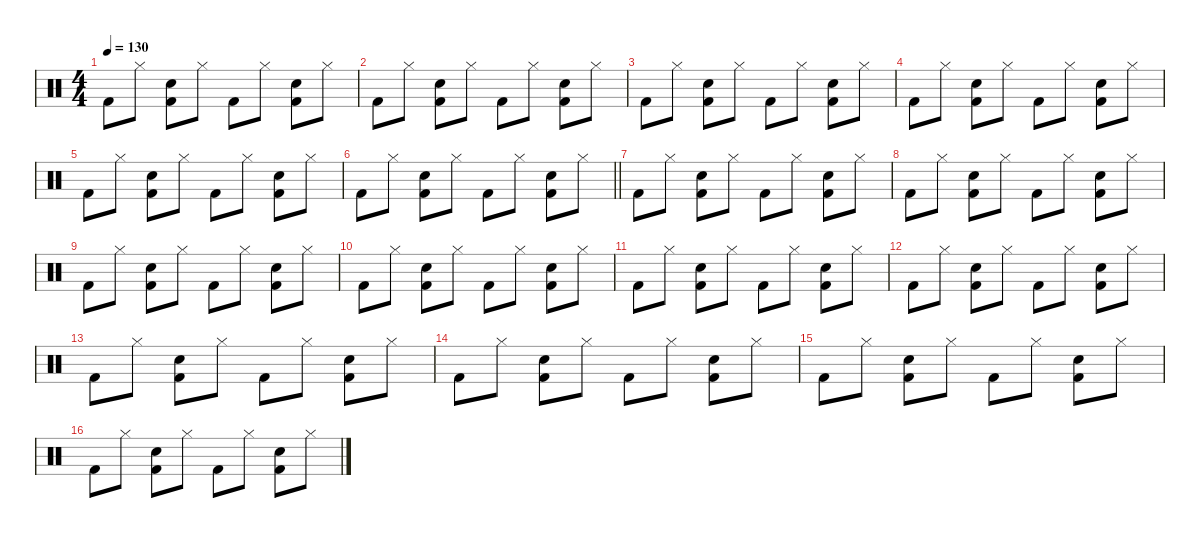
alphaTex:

\defaultSystemsLayout 4
\hideDynamics
\bracketExtendMode nobrackets
\singleTrackTrackNamePolicy hidden
\multiTrackTrackNamePolicy hidden
\otherSystemsTrackNameOrientation horizontal
\track ("Percussion" "drm.") {defaultSystemsLayout 4 instrument percussion}
\staff {score}
\articulation defaults
\ts (4 4)
\tempo 130
\clef neutral
\ks c "Kick (hit) 2".8{dy f beam Down} "Hi-Hat (closed)".8{beam Down}
("Snare (hit) 2" "Kick (hit) 2").8{beam Down} "Hi-Hat (closed)".8{beam Down} "Kick (hit) 2".8{beam Down} "Hi-Hat (closed)".8{beam Down} ("Snare (hit) 2" "Kick (hit) 2").8{beam Down} "Hi-Hat (closed)".8{beam Down} |
"Kick (hit) 2".8{beam Down} "Hi-Hat (closed)".8{beam Down} ("Snare (hit) 2" "Kick (hit) 2").8{beam Down} "Hi-Hat (closed)".8{beam Down} "Kick (hit) 2".8{beam Down} "Hi-Hat (closed)".8{beam Down} ("Snare (hit) 2" "Kick (hit) 2").8{beam Down} "Hi-Hat (closed)".8{beam Down} |
"Kick (hit) 2".8{beam Down} "Hi-Hat (closed)".8{beam Down} ("Snare (hit) 2" "Kick (hit) 2").8{beam Down} "Hi-Hat (closed)".8{beam Down} "Kick (hit) 2".8{beam Down} "Hi-Hat (closed)".8{beam Down} ("Snare (hit) 2" "Kick (hit) 2").8{beam Down} "Hi-Hat (closed)".8{beam Down} |
"Kick (hit) 2".8{beam Down} "Hi-Hat (closed)".8{beam Down} ("Snare (hit) 2" "Kick (hit) 2").8{beam Down} "Hi-Hat (closed)".8{beam Down} "Kick (hit) 2".8{beam Down} "Hi-Hat (closed)".8{beam Down} ("Snare (hit) 2" "Kick (hit) 2").8{beam Down} "Hi-Hat (closed)".8{beam Down} |
"Kick (hit) 2".8{beam Down} "Hi-Hat (closed)".8{beam Down} ("Snare (hit) 2" "Kick (hit) 2").8{beam Down} "Hi-Hat (closed)".8{beam Down} "Kick (hit) 2".8{beam Down} "Hi-Hat (closed)".8{beam Down} ("Snare (hit) 2" "Kick (hit) 2").8{beam Down} "Hi-Hat (closed)".8{beam Down} |
\barLineRight lightlight "Kick (hit) 2".8{beam Down} "Hi-Hat (closed)".8{beam Down}
("Snare (hit) 2" "Kick (hit) 2").8{beam Down} "Hi-Hat (closed)".8{beam Down} "Kick (hit) 2".8{beam Down} "Hi-Hat (closed)".8{beam Down} ("Snare (hit) 2" "Kick (hit) 2").8{beam Down} "Hi-Hat (closed)".8{beam Down} |
"Kick (hit) 2".8{beam Down} "Hi-Hat (closed)".8{beam Down} ("Snare (hit) 2" "Kick (hit) 2").8{beam Down} "Hi-Hat (closed)".8{beam Down} "Kick (hit) 2".8{beam Down} "Hi-Hat (closed)".8{beam Down} ("Snare (hit) 2" "Kick (hit) 2").8{beam Down} "Hi-Hat (closed)".8{beam Down} |
"Kick (hit) 2".8{beam Down} "Hi-Hat (closed)".8{beam Down} ("Snare (hit) 2" "Kick (hit) 2").8{beam Down} "Hi-Hat (closed)".8{beam Down} "Kick (hit) 2".8{beam Down} "Hi-Hat (closed)".8{beam Down} ("Snare (hit) 2" "Kick (hit) 2").8{beam Down} "Hi-Hat (closed)".8{beam Down} |
"Kick (hit) 2".8{beam Down} "Hi-Hat (closed)".8{beam Down} ("Snare (hit) 2" "Kick (hit) 2").8{beam Down} "Hi-Hat (closed)".8{beam Down} "Kick (hit) 2".8{beam Down} "Hi-Hat (closed)".8{beam Down} ("Snare (hit) 2" "Kick (hit) 2").8{beam Down} "Hi-Hat (closed)".8{beam Down} |
"Kick (hit) 2".8{beam Down} "Hi-Hat (closed)".8{beam Down} ("Snare (hit) 2" "Kick (hit) 2").8{beam Down} "Hi-Hat (closed)".8{beam Down} "Kick (hit) 2".8{beam Down} "Hi-Hat (closed)".8{beam Down} ("Snare (hit) 2" "Kick (hit) 2").8{beam Down} "Hi-Hat (closed)".8{beam Down} |
"Kick (hit) 2".8{beam Down} "Hi-Hat (closed)".8{beam Down} ("Snare (hit) 2" "Kick (hit) 2").8{beam Down} "Hi-Hat (closed)".8{beam Down} "Kick (hit) 2".8{beam Down} "Hi-Hat (closed)".8{beam Down} ("Snare (hit) 2" "Kick (hit) 2").8{beam Down} "Hi-Hat (closed)".8{beam Down} |
"Kick (hit) 2".8{beam Down} "Hi-Hat (closed)".8{beam Down} ("Snare (hit) 2" "Kick (hit) 2").8{beam Down} "Hi-Hat (closed)".8{beam Down} "Kick (hit) 2".8{beam Down} "Hi-Hat (closed)".8{beam Down} ("Snare (hit) 2" "Kick (hit) 2").8{beam Down} "Hi-Hat (closed)".8{beam Down} |
"Kick (hit) 2".8{beam Down} "Hi-Hat (closed)".8{beam Down} ("Snare (hit) 2" "Kick (hit) 2").8{beam Down} "Hi-Hat (closed)".8{beam Down} "Kick (hit) 2".8{beam Down} "Hi-Hat (closed)".8{beam Down} ("Snare (hit) 2" "Kick (hit) 2").8{beam Down} "Hi-Hat (closed)".8{beam Down} |
"Kick (hit) 2".8{beam Down} "Hi-Hat (closed)".8{beam Down} ("Snare (hit) 2" "Kick (hit) 2").8{beam Down} "Hi-Hat (closed)".8{beam Down} "Kick (hit) 2".8{beam Down} "Hi-Hat (closed)".8{beam Down} ("Snare (hit) 2" "Kick (hit) 2").8{beam Down} "Hi-Hat (closed)".8{beam Down} |
"Kick (hit) 2".8{beam Down} "Hi-Hat (closed)".8{beam Down} ("Snare (hit) 2" "Kick (hit) 2").8{beam Down} "Hi-Hat (closed)".8{beam Down} "Kick (hit) 2".8{beam Down} "Hi-Hat (closed)".8{beam Down} ("Snare (hit) 2" "Kick (hit) 2").8{beam Down} "Hi-Hat (closed)".8{beam Down} |
"Kick (hit) 2".8{beam Down} "Hi-Hat (closed)".8{beam Down} ("Snare (hit) 2" "Kick (hit) 2").8{beam Down} "Hi-Hat (closed)".8{beam Down} "Kick (hit) 2".8{beam Down} "Hi-Hat (closed)".8{beam Down} ("Snare (hit) 2" "Kick (hit) 2").8{beam Down} "Hi-Hat (closed)".8{beam Down}
